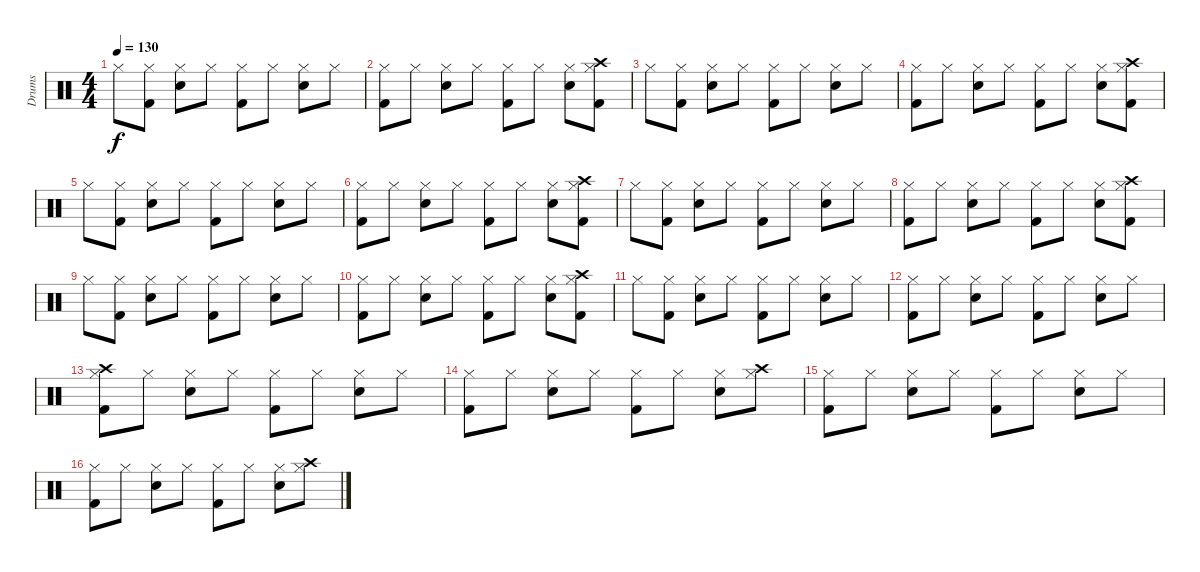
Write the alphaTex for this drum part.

\track ("Drums" "Drums") {instrument percussion}
\staff {score}
\articulation defaults
\ts (4 4)
\tempo 130
\clef neutral
\ks c "Hi-Hat (closed)".8{dy f}
("Kick (hit) 2" "Hi-Hat (closed)").8 ("Snare (hit) 2" "Hi-Hat (closed)").8 "Hi-Hat (closed)".8 ("Kick (hit) 2" "Hi-Hat (closed)").8 "Hi-Hat (closed)".8 ("Snare (hit) 2" "Hi-Hat (closed)").8 "Hi-Hat (closed)".8 |
("Kick (hit) 2" "Hi-Hat (closed)").8 "Hi-Hat (closed)".8 ("Snare (hit) 2" "Hi-Hat (closed)").8 "Hi-Hat (closed)".8 ("Kick (hit) 2" "Hi-Hat (closed)").8 "Hi-Hat (closed)".8 ("Snare (hit) 2" "Hi-Hat (closed)").8 ("Kick (hit) 2" "Hi-Hat (closed)" "Crash high (hit)").8 |
"Hi-Hat (closed)".8 ("Kick (hit) 2" "Hi-Hat (closed)").8 ("Snare (hit) 2" "Hi-Hat (closed)").8 "Hi-Hat (closed)".8 ("Kick (hit) 2" "Hi-Hat (closed)").8 "Hi-Hat (closed)".8 ("Snare (hit) 2" "Hi-Hat (closed)").8 "Hi-Hat (closed)".8 |
("Kick (hit) 2" "Hi-Hat (closed)").8 "Hi-Hat (closed)".8 ("Snare (hit) 2" "Hi-Hat (closed)").8 "Hi-Hat (closed)".8 ("Kick (hit) 2" "Hi-Hat (closed)").8 "Hi-Hat (closed)".8 ("Snare (hit) 2" "Hi-Hat (closed)").8 ("Kick (hit) 2" "Hi-Hat (closed)" "Crash high (hit)").8 |
"Hi-Hat (closed)".8 ("Kick (hit) 2" "Hi-Hat (closed)").8 ("Snare (hit) 2" "Hi-Hat (closed)").8 "Hi-Hat (closed)".8 ("Kick (hit) 2" "Hi-Hat (closed)").8 "Hi-Hat (closed)".8 ("Snare (hit) 2" "Hi-Hat (closed)").8 "Hi-Hat (closed)".8 |
("Kick (hit) 2" "Hi-Hat (closed)").8 "Hi-Hat (closed)".8 ("Snare (hit) 2" "Hi-Hat (closed)").8 "Hi-Hat (closed)".8 ("Kick (hit) 2" "Hi-Hat (closed)").8 "Hi-Hat (closed)".8 ("Snare (hit) 2" "Hi-Hat (closed)").8 ("Kick (hit) 2" "Hi-Hat (closed)" "Crash high (hit)").8 |
"Hi-Hat (closed)".8 ("Kick (hit) 2" "Hi-Hat (closed)").8 ("Snare (hit) 2" "Hi-Hat (closed)").8 "Hi-Hat (closed)".8 ("Kick (hit) 2" "Hi-Hat (closed)").8 "Hi-Hat (closed)".8 ("Snare (hit) 2" "Hi-Hat (closed)").8 "Hi-Hat (closed)".8 |
("Kick (hit) 2" "Hi-Hat (closed)").8 "Hi-Hat (closed)".8 ("Snare (hit) 2" "Hi-Hat (closed)").8 "Hi-Hat (closed)".8 ("Kick (hit) 2" "Hi-Hat (closed)").8 "Hi-Hat (closed)".8 ("Snare (hit) 2" "Hi-Hat (closed)").8 ("Kick (hit) 2" "Hi-Hat (closed)" "Crash high (hit)").8 |
"Hi-Hat (closed)".8 ("Kick (hit) 2" "Hi-Hat (closed)").8 ("Snare (hit) 2" "Hi-Hat (closed)").8 "Hi-Hat (closed)".8 ("Kick (hit) 2" "Hi-Hat (closed)").8 "Hi-Hat (closed)".8 ("Snare (hit) 2" "Hi-Hat (closed)").8 "Hi-Hat (closed)".8 |
("Kick (hit) 2" "Hi-Hat (closed)").8 "Hi-Hat (closed)".8 ("Snare (hit) 2" "Hi-Hat (closed)").8 "Hi-Hat (closed)".8 ("Kick (hit) 2" "Hi-Hat (closed)").8 "Hi-Hat (closed)".8 ("Snare (hit) 2" "Hi-Hat (closed)").8 ("Kick (hit) 2" "Hi-Hat (closed)" "Crash high (hit)").8 |
"Hi-Hat (closed)".8 ("Kick (hit) 2" "Hi-Hat (closed)").8 ("Snare (hit) 2" "Hi-Hat (closed)").8 "Hi-Hat (closed)".8 ("Kick (hit) 2" "Hi-Hat (closed)").8 "Hi-Hat (closed)".8 ("Snare (hit) 2" "Hi-Hat (closed)").8 "Hi-Hat (closed)".8 |
("Kick (hit) 2" "Hi-Hat (closed)").8 "Hi-Hat (closed)".8 ("Snare (hit) 2" "Hi-Hat (closed)").8 "Hi-Hat (closed)".8 ("Kick (hit) 2" "Hi-Hat (closed)").8 "Hi-Hat (closed)".8 ("Snare (hit) 2" "Hi-Hat (closed)").8 "Hi-Hat (closed)".8 |
("Kick (hit) 2" "Hi-Hat (closed)" "Crash high (hit)").8 "Hi-Hat (closed)".8 ("Snare (hit) 2" "Hi-Hat (closed)").8 "Hi-Hat (closed)".8 ("Kick (hit) 2" "Hi-Hat (closed)").8 "Hi-Hat (closed)".8 ("Snare (hit) 2" "Hi-Hat (closed)").8 "Hi-Hat (closed)".8 |
("Kick (hit) 2" "Hi-Hat (closed)").8 "Hi-Hat (closed)".8 ("Snare (hit) 2" "Hi-Hat (closed)").8 "Hi-Hat (closed)".8 ("Kick (hit) 2" "Hi-Hat (closed)").8 "Hi-Hat (closed)".8 ("Snare (hit) 2" "Hi-Hat (closed)").8 ("Hi-Hat (closed)" "Crash high (hit)").8 |
("Kick (hit) 2" "Hi-Hat (closed)").8 "Hi-Hat (closed)".8 ("Snare (hit) 2" "Hi-Hat (closed)").8 "Hi-Hat (closed)".8 ("Kick (hit) 2" "Hi-Hat (closed)").8 "Hi-Hat (closed)".8 ("Snare (hit) 2" "Hi-Hat (closed)").8 "Hi-Hat (closed)".8 |
("Kick (hit) 2" "Hi-Hat (closed)").8 "Hi-Hat (closed)".8 ("Snare (hit) 2" "Hi-Hat (closed)").8 "Hi-Hat (closed)".8 ("Kick (hit) 2" "Hi-Hat (closed)").8 "Hi-Hat (closed)".8 ("Snare (hit) 2" "Hi-Hat (closed)").8 ("Hi-Hat (closed)" "Crash high (hit)").8
